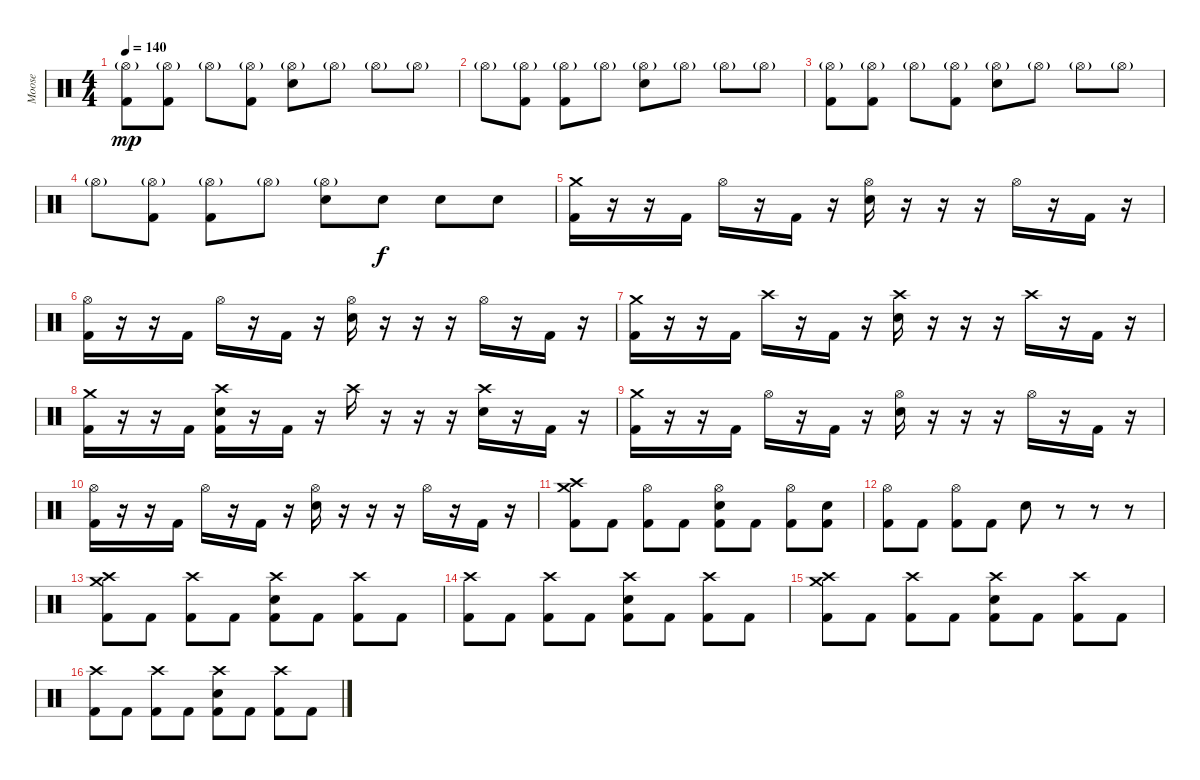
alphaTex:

\track ("Moose" "Moose") {instrument percussion}
\staff {score}
\articulation defaults
\ts (4 4)
\tempo 140
\clef neutral
\ks c
("Hi-Hat (open)"{g} "Kick (hit) 2").8{dy mp} ("Hi-Hat (open)"{g} "Kick (hit) 2").8 "Hi-Hat (open)"{g}.8 ("Hi-Hat (open)"{g} "Kick (hit) 2").8 ("Hi-Hat (open)"{g} "Snare (hit) 2").8 "Hi-Hat (open)"{g}.8 "Hi-Hat (open)"{g}.8 "Hi-Hat (open)"{g}.8 |
"Hi-Hat (open)"{g}.8 ("Hi-Hat (open)"{g} "Kick (hit) 2").8 ("Hi-Hat (open)"{g} "Kick (hit) 2").8 "Hi-Hat (open)"{g}.8 ("Hi-Hat (open)"{g} "Snare (hit) 2").8 "Hi-Hat (open)"{g}.8 "Hi-Hat (open)"{g}.8 "Hi-Hat (open)"{g}.8 |
("Hi-Hat (open)"{g} "Kick (hit) 2").8 ("Hi-Hat (open)"{g} "Kick (hit) 2").8 "Hi-Hat (open)"{g}.8 ("Hi-Hat (open)"{g} "Kick (hit) 2").8 ("Hi-Hat (open)"{g} "Snare (hit) 2").8 "Hi-Hat (open)"{g}.8 "Hi-Hat (open)"{g}.8 "Hi-Hat (open)"{g}.8 |
"Hi-Hat (open)"{g}.8 ("Hi-Hat (open)"{g} "Kick (hit) 2").8 ("Hi-Hat (open)"{g} "Kick (hit) 2").8 "Hi-Hat (open)"{g}.8 ("Hi-Hat (open)"{g} "Snare (hit) 2").8 "Snare (hit) 2".8{dy f} "Snare (hit) 2".8 "Snare (hit) 2".8 |
("Crash medium (hit)" "Kick (hit) 2").16 r.16 r.16 "Kick (hit) 2".16 "Hi-Hat (open)".16 r.16 "Kick (hit) 2".16 r.16 ("Hi-Hat (open)" "Snare (hit) 2").16 r.16 r.16 r.16 "Hi-Hat (open)".16 r.16 "Kick (hit) 2".16 r.16 |
("Hi-Hat (open)" "Kick (hit) 2").16 r.16 r.16 "Kick (hit) 2".16 "Hi-Hat (open)".16 r.16 "Kick (hit) 2".16 r.16 ("Hi-Hat (open)" "Snare (hit) 2").16 r.16 r.16 r.16 "Hi-Hat (open)".16 r.16 "Kick (hit) 2".16 r.16 |
("Crash medium (hit)" "Kick (hit) 2").16 r.16 r.16 "Kick (hit) 2".16 "Crash high (hit)".16 r.16 "Kick (hit) 2".16 r.16 ("Crash high (hit)" "Snare (hit) 2").16 r.16 r.16 r.16 "Crash high (hit)".16 r.16 "Kick (hit) 2".16 r.16 |
("Crash medium (hit)" "Kick (hit) 2").16 r.16 r.16 "Kick (hit) 2".16 ("Crash high (hit)" "Snare (hit) 2" "Kick (hit) 2").16 r.16 "Kick (hit) 2".16 r.16 "Crash high (hit)".16 r.16 r.16 r.16 ("Crash high (hit)" "Snare (hit) 2").16 r.16 "Kick (hit) 2".16 r.16 |
("Crash medium (hit)" "Kick (hit) 2").16 r.16 r.16 "Kick (hit) 2".16 "Hi-Hat (open)".16 r.16 "Kick (hit) 2".16 r.16 ("Hi-Hat (open)" "Snare (hit) 2").16 r.16 r.16 r.16 "Hi-Hat (open)".16 r.16 "Kick (hit) 2".16 r.16 |
("Hi-Hat (open)" "Kick (hit) 2").16 r.16 r.16 "Kick (hit) 2".16 "Hi-Hat (open)".16 r.16 "Kick (hit) 2".16 r.16 ("Hi-Hat (open)" "Snare (hit) 2").16 r.16 r.16 r.16 "Hi-Hat (open)".16 r.16 "Kick (hit) 2".16 r.16 |
("Crash medium (hit)" "Crash high (hit)" "Kick (hit) 2").8 "Kick (hit) 2".8 ("Hi-Hat (open)" "Kick (hit) 2").8 "Kick (hit) 2".8 ("Hi-Hat (open)" "Snare (hit) 2" "Kick (hit) 2").8 "Kick (hit) 2".8 ("Hi-Hat (open)" "Kick (hit) 2").8 ("Snare (hit) 2" "Kick (hit) 2").8 |
("Hi-Hat (open)" "Kick (hit) 2").8 "Kick (hit) 2".8 ("Hi-Hat (open)" "Kick (hit) 2").8 "Kick (hit) 2".8 "Snare (hit) 2".8 r.8 r.8 r.8 |
("Crash high (hit)" "Crash medium (hit)" "Kick (hit) 2").8 "Kick (hit) 2".8 ("Crash high (hit)" "Kick (hit) 2").8 "Kick (hit) 2".8 ("Crash high (hit)" "Snare (hit) 2" "Kick (hit) 2").8 "Kick (hit) 2".8 ("Crash high (hit)" "Kick (hit) 2").8 "Kick (hit) 2".8 |
("Crash high (hit)" "Kick (hit) 2").8 "Kick (hit) 2".8 ("Crash high (hit)" "Kick (hit) 2").8 "Kick (hit) 2".8 ("Crash high (hit)" "Snare (hit) 2" "Kick (hit) 2").8 "Kick (hit) 2".8 ("Crash high (hit)" "Kick (hit) 2").8 "Kick (hit) 2".8 |
("Crash high (hit)" "Crash medium (hit)" "Kick (hit) 2").8 "Kick (hit) 2".8 ("Crash high (hit)" "Kick (hit) 2").8 "Kick (hit) 2".8 ("Crash high (hit)" "Snare (hit) 2" "Kick (hit) 2").8 "Kick (hit) 2".8 ("Crash high (hit)" "Kick (hit) 2").8 "Kick (hit) 2".8 |
("Crash high (hit)" "Kick (hit) 2").8 "Kick (hit) 2".8 ("Crash high (hit)" "Kick (hit) 2").8 "Kick (hit) 2".8 ("Crash high (hit)" "Snare (hit) 2" "Kick (hit) 2").8 "Kick (hit) 2".8 ("Crash high (hit)" "Kick (hit) 2").8 "Kick (hit) 2".8
